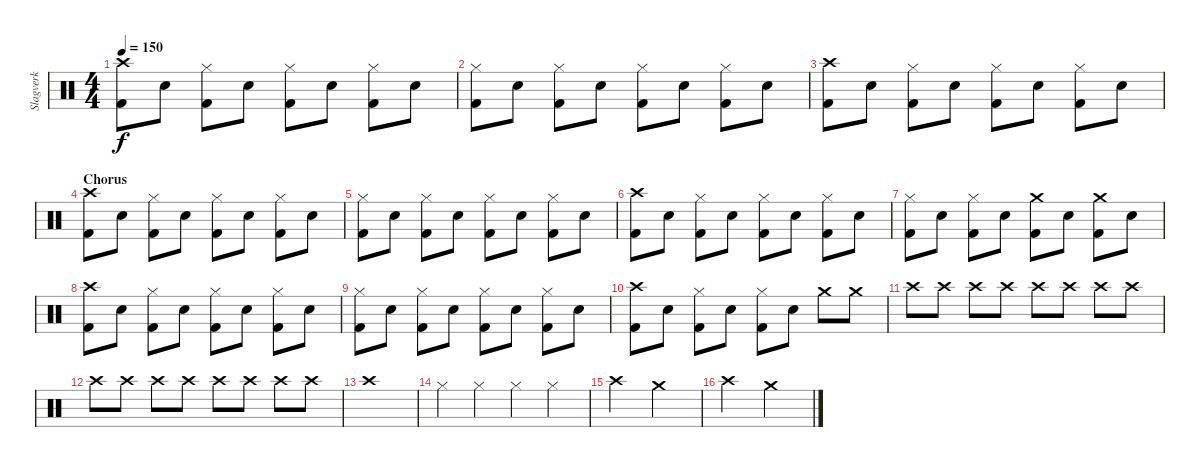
\track ("Slagverk" "Slagverk") {instrument percussion}
\staff {score}
\articulation defaults
\ts (4 4)
\tempo 150
\clef neutral
\ks c
("Crash high (hit)" "Kick (hit) 2").8{dy f} "Electric Snare (hit)".8 ("Hi-Hat (closed)" "Kick (hit) 2").8 "Electric Snare (hit)".8 ("Hi-Hat (closed)" "Kick (hit) 2").8 "Electric Snare (hit)".8 ("Hi-Hat (closed)" "Kick (hit) 2").8 "Electric Snare (hit)".8 |
("Hi-Hat (closed)" "Kick (hit) 2").8 "Electric Snare (hit)".8 ("Hi-Hat (closed)" "Kick (hit) 2").8 "Electric Snare (hit)".8 ("Hi-Hat (closed)" "Kick (hit) 2").8 "Electric Snare (hit)".8 ("Hi-Hat (closed)" "Kick (hit) 2").8 "Electric Snare (hit)".8 |
("Crash high (hit)" "Kick (hit) 2").8 "Electric Snare (hit)".8 ("Hi-Hat (closed)" "Kick (hit) 2").8 "Electric Snare (hit)".8 ("Hi-Hat (closed)" "Kick (hit) 2").8 "Electric Snare (hit)".8 ("Hi-Hat (closed)" "Kick (hit) 2").8 "Electric Snare (hit)".8 |
\section ("" "Chorus")
("Crash high (hit)" "Kick (hit) 2").8 "Electric Snare (hit)".8 ("Hi-Hat (closed)" "Kick (hit) 2").8 "Electric Snare (hit)".8 ("Hi-Hat (closed)" "Kick (hit) 2").8 "Electric Snare (hit)".8 ("Hi-Hat (closed)" "Kick (hit) 2").8 "Electric Snare (hit)".8 |
("Hi-Hat (closed)" "Kick (hit) 2").8 "Electric Snare (hit)".8 ("Hi-Hat (closed)" "Kick (hit) 2").8 "Electric Snare (hit)".8 ("Hi-Hat (closed)" "Kick (hit) 2").8 "Electric Snare (hit)".8 ("Hi-Hat (closed)" "Kick (hit) 2").8 "Electric Snare (hit)".8 |
("Crash high (hit)" "Kick (hit) 2").8 "Electric Snare (hit)".8 ("Hi-Hat (closed)" "Kick (hit) 2").8 "Electric Snare (hit)".8 ("Hi-Hat (closed)" "Kick (hit) 2").8 "Electric Snare (hit)".8 ("Hi-Hat (closed)" "Kick (hit) 2").8 "Electric Snare (hit)".8 |
("Hi-Hat (closed)" "Kick (hit) 2").8 "Electric Snare (hit)".8 ("Hi-Hat (closed)" "Kick (hit) 2").8 "Electric Snare (hit)".8 ("Crash medium (hit)" "Kick (hit) 2").8 "Electric Snare (hit)".8 ("Crash medium (hit)" "Kick (hit) 2").8 "Electric Snare (hit)".8 |
("Crash high (hit)" "Kick (hit) 2").8 "Electric Snare (hit)".8 ("Hi-Hat (closed)" "Kick (hit) 2").8 "Electric Snare (hit)".8 ("Hi-Hat (closed)" "Kick (hit) 2").8 "Electric Snare (hit)".8 ("Hi-Hat (closed)" "Kick (hit) 2").8 "Electric Snare (hit)".8 |
("Hi-Hat (closed)" "Kick (hit) 2").8 "Electric Snare (hit)".8 ("Hi-Hat (closed)" "Kick (hit) 2").8 "Electric Snare (hit)".8 ("Hi-Hat (closed)" "Kick (hit) 2").8 "Electric Snare (hit)".8 ("Hi-Hat (closed)" "Kick (hit) 2").8 "Electric Snare (hit)".8 |
("Crash high (hit)" "Kick (hit) 2").8 "Electric Snare (hit)".8 ("Hi-Hat (closed)" "Kick (hit) 2").8 "Electric Snare (hit)".8 ("Hi-Hat (closed)" "Kick (hit) 2").8 "Electric Snare (hit)".8 "Crash medium (hit)".8 "Crash medium (hit)".8 |
"Crash high (hit)".8 "Crash high (hit)".8 "Crash high (hit)".8 "Crash high (hit)".8 "Crash high (hit)".8 "Crash high (hit)".8 "Crash high (hit)".8 "Crash high (hit)".8 |
"Crash high (hit)".8 "Crash high (hit)".8 "Crash high (hit)".8 "Crash high (hit)".8 "Crash high (hit)".8 "Crash high (hit)".8 "Crash high (hit)".8 "Crash high (hit)".8 |
"Crash high (hit)".1 |
"Hi-Hat (closed)".4 "Hi-Hat (closed)".4 "Hi-Hat (closed)".4 "Hi-Hat (closed)".4 |
"Crash high (hit)".2 "Crash medium (hit)".2 |
"Crash high (hit)".2 "Crash medium (hit)".2
